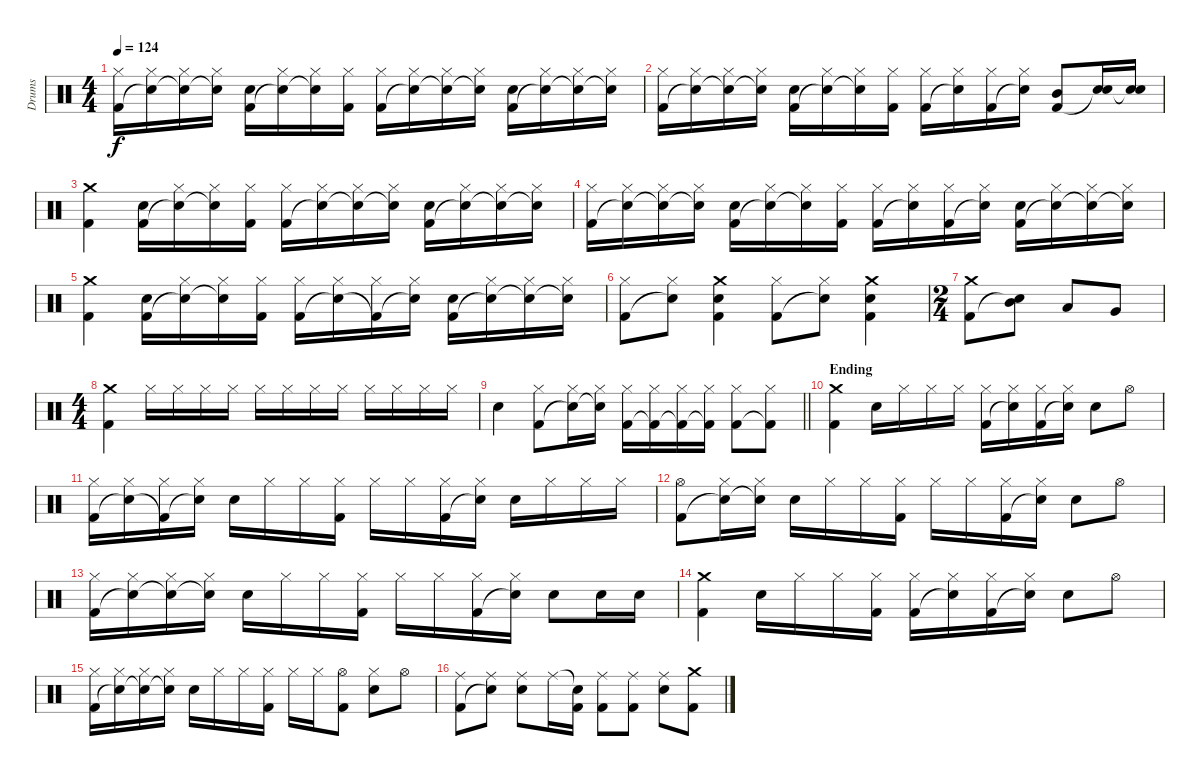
\track ("Drums" "Drums") {instrument percussion}
\staff {score}
\articulation defaults
\ts (4 4)
\tempo 124
\clef neutral
\ks aminor
("Hi-Hat (closed)" "Kick (hit) 2").16{dy f} ("Hi-Hat (closed)" "Snare (hit)"{t}).16 ("Hi-Hat (closed)" "Snare (hit)"{t}).16 ("Hi-Hat (closed)" "Snare (hit)"{t}).16 ("Electric Snare (hit)" "Kick (hit) 2").16 ("Hi-Hat (closed)" "Snare (hit)"{t}).16 ("Hi-Hat (closed)" "Snare (hit)"{t}).16 ("Hi-Hat (closed)" "Kick (hit) 2").16 ("Hi-Hat (closed)" "Kick (hit) 2").16 ("Hi-Hat (closed)" "Snare (hit)"{t}).16 ("Hi-Hat (closed)" "Snare (hit)"{t}).16 ("Hi-Hat (closed)" "Snare (hit)"{t}).16 ("Electric Snare (hit)" "Kick (hit) 2").16 ("Hi-Hat (closed)" "Snare (hit)"{t}).16 ("Hi-Hat (closed)" "Snare (hit)"{t}).16 ("Hi-Hat (closed)" "Snare (hit)"{t}).16 |
("Hi-Hat (closed)" "Kick (hit) 2").16 ("Hi-Hat (closed)" "Snare (hit)"{t}).16 ("Hi-Hat (closed)" "Snare (hit)"{t}).16 ("Hi-Hat (closed)" "Snare (hit)"{t}).16 ("Electric Snare (hit)" "Kick (hit) 2").16 ("Hi-Hat (closed)" "Snare (hit)"{t}).16 ("Hi-Hat (closed)" "Snare (hit)"{t}).16 ("Hi-Hat (closed)" "Kick (hit) 2").16 ("Hi-Hat (closed)" "Kick (hit) 2").16 ("Hi-Hat (closed)" "Snare (hit)"{t}).16 ("Hi-Hat (closed)" "Kick (hit) 2").16 ("Hi-Hat (closed)" "Snare (hit)"{t}).16 ("Mid Tom (hit)" "Kick (hit) 2").8 ("Electric Snare (hit)" "Snare (hit)"{t}).16 ("Electric Snare (hit)" "Snare (hit)"{t}).16 |
("Crash medium (hit)" "Kick (hit) 2").4 ("Electric Snare (hit)" "Kick (hit) 2").16 ("Hi-Hat (closed)" "Snare (hit)"{t}).16 ("Hi-Hat (closed)" "Snare (hit)"{t}).16 ("Hi-Hat (closed)" "Kick (hit) 2").16 ("Hi-Hat (closed)" "Kick (hit) 2").16 ("Hi-Hat (closed)" "Snare (hit)"{t}).16 ("Hi-Hat (closed)" "Snare (hit)"{t}).16 ("Hi-Hat (closed)" "Snare (hit)"{t}).16 ("Electric Snare (hit)" "Kick (hit) 2").16 ("Hi-Hat (closed)" "Snare (hit)"{t}).16 ("Hi-Hat (closed)" "Snare (hit)"{t}).16 ("Hi-Hat (closed)" "Snare (hit)"{t}).16 |
("Hi-Hat (closed)" "Kick (hit) 2").16 ("Hi-Hat (closed)" "Snare (hit)"{t}).16 ("Hi-Hat (closed)" "Snare (hit)"{t}).16 ("Hi-Hat (closed)" "Snare (hit)"{t}).16 ("Electric Snare (hit)" "Kick (hit) 2").16 ("Hi-Hat (closed)" "Snare (hit)"{t}).16 ("Hi-Hat (closed)" "Snare (hit)"{t}).16 ("Hi-Hat (closed)" "Kick (hit) 2").16 ("Hi-Hat (closed)" "Kick (hit) 2").16 ("Hi-Hat (closed)" "Snare (hit)"{t}).16 ("Hi-Hat (closed)" "Kick (hit) 2").16 ("Hi-Hat (closed)" "Snare (hit)"{t}).16 ("Electric Snare (hit)" "Kick (hit) 2").16 ("Hi-Hat (closed)" "Snare (hit)"{t}).16 ("Hi-Hat (closed)" "Snare (hit)"{t}).16 ("Hi-Hat (closed)" "Snare (hit)"{t}).16 |
("Crash medium (hit)" "Kick (hit) 2").4 ("Electric Snare (hit)" "Kick (hit) 2").16 ("Hi-Hat (closed)" "Snare (hit)"{t}).16 ("Hi-Hat (closed)" "Snare (hit)"{t}).16 ("Hi-Hat (closed)" "Kick (hit) 2").16 ("Hi-Hat (closed)" "Kick (hit) 2").16 ("Hi-Hat (closed)" "Snare (hit)"{t}).16 ("Hi-Hat (closed)" "Kick (hit) 2"{t}).16 ("Hi-Hat (closed)" "Snare (hit)"{t}).16 ("Electric Snare (hit)" "Kick (hit) 2").16 ("Hi-Hat (closed)" "Snare (hit)"{t}).16 ("Hi-Hat (closed)" "Snare (hit)"{t}).16 ("Hi-Hat (closed)" "Snare (hit)"{t}).16 |
("Hi-Hat (closed)" "Kick (hit) 2").8 ("Hi-Hat (closed)" "Snare (hit)"{t}).8 ("Crash medium (hit)" "Electric Snare (hit)" "Kick (hit) 2").4 ("Hi-Hat (closed)" "Kick (hit) 2").8 ("Hi-Hat (closed)" "Snare (hit)"{t}).8 ("Crash medium (hit)" "Electric Snare (hit)" "Kick (hit) 2").4 |
\ts (2 4)
("Crash medium (hit)" "Kick (hit) 2").8 ("Mid Tom (hit)" "Snare (hit)"{t}).8 "Low Tom (hit)".8 "Very Low Tom (hit)".8 |
\ts (4 4)
("Crash medium (hit)" "Kick (hit) 2").4 "Hi-Hat (closed)".16 "Hi-Hat (closed)".16 "Hi-Hat (closed)".16 "Hi-Hat (closed)".16 "Hi-Hat (closed)".16 "Hi-Hat (closed)".16 "Hi-Hat (closed)".16 "Hi-Hat (closed)".16 "Hi-Hat (closed)".16 "Hi-Hat (closed)".16 "Hi-Hat (closed)".16 "Hi-Hat (closed)".16 |
\barLineRight lightlight "Electric Snare (hit)".4
("Hi-Hat (closed)" "Kick (hit) 2").8 ("Hi-Hat (closed)" "Snare (hit)"{t}).16 ("Hi-Hat (closed)" "Snare (hit)"{t}).16 ("Hi-Hat (closed)" "Kick (hit) 2").16 ("Hi-Hat (closed)" "Kick (hit) 2"{t}).16 ("Hi-Hat (closed)" "Kick (hit) 2"{t}).16 ("Hi-Hat (closed)" "Kick (hit) 2"{t}).16 ("Hi-Hat (closed)" "Kick (hit) 2").8 ("Hi-Hat (closed)" "Kick (hit) 2"{t}).8 |
\section ("" "Ending")
("Crash medium (hit)" "Kick (hit) 2").4 "Electric Snare (hit)".16 "Hi-Hat (closed)".16 "Hi-Hat (closed)".16 "Hi-Hat (closed)".16 ("Hi-Hat (closed)" "Kick (hit) 2").16 ("Hi-Hat (closed)" "Snare (hit)"{t}).16 ("Hi-Hat (closed)" "Kick (hit) 2").16 ("Hi-Hat (closed)" "Snare (hit)"{t}).16 "Electric Snare (hit)".8 "Hi-Hat (open)".8 |
("Hi-Hat (closed)" "Kick (hit) 2").16 ("Hi-Hat (closed)" "Snare (hit)"{t}).16 ("Hi-Hat (closed)" "Kick (hit) 2"{t}).16 ("Hi-Hat (closed)" "Snare (hit)"{t}).16 "Electric Snare (hit)".16 "Hi-Hat (closed)".16 "Hi-Hat (closed)".16 ("Hi-Hat (closed)" "Kick (hit) 2").16 "Hi-Hat (closed)".16 "Hi-Hat (closed)".16 ("Hi-Hat (closed)" "Kick (hit) 2").16 ("Hi-Hat (closed)" "Snare (hit)"{t}).16 "Electric Snare (hit)".16 "Hi-Hat (closed)".16 "Hi-Hat (closed)".16 "Hi-Hat (closed)".16 |
("Hi-Hat (open)" "Kick (hit) 2").8 ("Hi-Hat (closed)" "Snare (hit)"{t}).16 ("Hi-Hat (closed)" "Snare (hit)"{t}).16 "Electric Snare (hit)".16 "Hi-Hat (closed)".16 "Hi-Hat (closed)".16 ("Hi-Hat (closed)" "Kick (hit) 2").16 "Hi-Hat (closed)".16 "Hi-Hat (closed)".16 ("Hi-Hat (closed)" "Kick (hit) 2").16 ("Hi-Hat (closed)" "Snare (hit)"{t}).16 "Electric Snare (hit)".8 "Hi-Hat (open)".8 |
("Hi-Hat (closed)" "Kick (hit) 2").16 ("Hi-Hat (closed)" "Snare (hit)"{t}).16 ("Hi-Hat (closed)" "Snare (hit)"{t}).16 ("Hi-Hat (closed)" "Snare (hit)"{t}).16 "Electric Snare (hit)".16 "Hi-Hat (closed)".16 "Hi-Hat (closed)".16 ("Hi-Hat (closed)" "Kick (hit) 2").16 "Hi-Hat (closed)".16 "Hi-Hat (closed)".16 ("Hi-Hat (closed)" "Kick (hit) 2").16 ("Hi-Hat (closed)" "Snare (hit)"{t}).16 "Electric Snare (hit)".8 "Electric Snare (hit)".16 "Electric Snare (hit)".16 |
("Crash medium (hit)" "Kick (hit) 2").4 "Electric Snare (hit)".16 "Hi-Hat (closed)".16 "Hi-Hat (closed)".16 ("Hi-Hat (closed)" "Kick (hit) 2").16 ("Hi-Hat (closed)" "Kick (hit) 2").16 ("Hi-Hat (closed)" "Snare (hit)"{t}).16 ("Hi-Hat (closed)" "Kick (hit) 2").16 ("Hi-Hat (closed)" "Snare (hit)"{t}).16 "Electric Snare (hit)".8 "Hi-Hat (open)".8 |
("Hi-Hat (closed)" "Kick (hit) 2").16 ("Hi-Hat (closed)" "Snare (hit)"{t}).16 ("Hi-Hat (closed)" "Snare (hit)"{t}).16 ("Hi-Hat (closed)" "Snare (hit)"{t}).16 "Electric Snare (hit)".16 "Hi-Hat (closed)".16 "Hi-Hat (closed)".16 ("Hi-Hat (closed)" "Kick (hit) 2").16 "Hi-Hat (closed)".16 "Hi-Hat (closed)".16 ("Hi-Hat (open)" "Kick (hit) 2").8 ("Hi-Hat (closed)" "Electric Snare (hit)").8 "Hi-Hat (open)".8 |
("Ride (middle)" "Kick (hit) 2").8 ("Ride (middle)" "Snare (hit)"{t}).8 ("Ride (middle)" "Electric Snare (hit)").8 "Ride (middle)".16 ("Snare (hit)"{t} "Kick (hit) 2").16 ("Ride (middle)" "Kick (hit) 2").8 ("Ride (middle)" "Kick (hit) 2").8 ("Ride (middle)" "Electric Snare (hit)").8 ("Crash medium (hit)" "Kick (hit) 2").8
